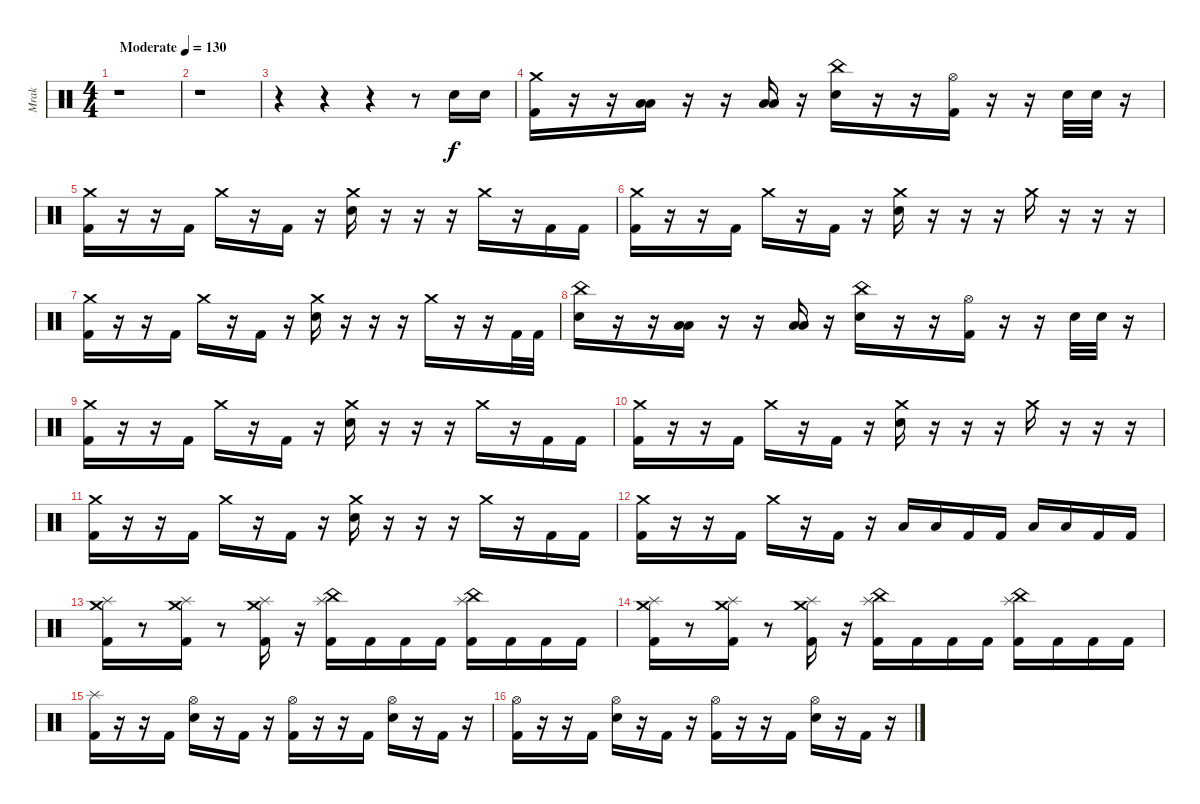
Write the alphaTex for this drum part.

\track ("Mrak" "Mrak") {instrument percussion}
\staff {score}
\articulation defaults
\ts (4 4)
\tempo (130 "Moderate")
\clef neutral
\ks c
r.1{dy f} |
r.1 |
r.4 r.4 r.4 r.8 "Electric Snare (hit)".16 "Electric Snare (hit)".16 |
("Crash medium (hit)" "Kick (hit) 2").16 r.16 r.16 ("Low Tom (hit)" "Low Floor Tom (hit)").16 r.16 r.16 ("Low Tom (hit)" "Low Floor Tom (hit)").16 r.16 ("China (hit)" "Electric Snare (hit)").16 r.16 r.16 ("Hi-Hat (open)" "Kick (hit) 2").16 r.16 r.16 "Electric Snare (hit)".32 "Electric Snare (hit)".32 r.16 |
("Crash medium (hit)" "Kick (hit) 2").16 r.16 r.16 "Kick (hit) 2".16 "Crash medium (hit)".16 r.16 "Kick (hit) 2".16 r.16 ("Crash medium (hit)" "Electric Snare (hit)").16 r.16 r.16 r.16 "Crash medium (hit)".16 r.16 "Kick (hit) 2".16 "Kick (hit) 2".16 |
("Crash medium (hit)" "Kick (hit) 2").16 r.16 r.16 "Kick (hit) 2".16 "Crash medium (hit)".16 r.16 "Kick (hit) 2".16 r.16 ("Crash medium (hit)" "Electric Snare (hit)").16 r.16 r.16 r.16 "Crash medium (hit)".16 r.16 r.16 r.16 |
("Crash medium (hit)" "Kick (hit) 2").16 r.16 r.16 "Kick (hit) 2".16 "Crash medium (hit)".16 r.16 "Kick (hit) 2".16 r.16 ("Crash medium (hit)" "Electric Snare (hit)").16 r.16 r.16 r.16 "Crash medium (hit)".16 r.16 r.16 "Kick (hit) 2".32 "Kick (hit) 2".32 |
("China (hit)" "Electric Snare (hit)").16 r.16 r.16 ("Low Tom (hit)" "Low Floor Tom (hit)").16 r.16 r.16 ("Low Tom (hit)" "Low Floor Tom (hit)").16 r.16 ("China (hit)" "Electric Snare (hit)").16 r.16 r.16 ("Hi-Hat (open)" "Kick (hit) 2").16 r.16 r.16 "Electric Snare (hit)".32 "Electric Snare (hit)".32 r.16 |
("Crash medium (hit)" "Kick (hit) 2").16 r.16 r.16 "Kick (hit) 2".16 "Crash medium (hit)".16 r.16 "Kick (hit) 2".16 r.16 ("Crash medium (hit)" "Electric Snare (hit)").16 r.16 r.16 r.16 "Crash medium (hit)".16 r.16 "Kick (hit) 2".16 "Kick (hit) 2".16 |
("Crash medium (hit)" "Kick (hit) 2").16 r.16 r.16 "Kick (hit) 2".16 "Crash medium (hit)".16 r.16 "Kick (hit) 2".16 r.16 ("Crash medium (hit)" "Electric Snare (hit)").16 r.16 r.16 r.16 "Crash medium (hit)".16 r.16 r.16 r.16 |
("Crash medium (hit)" "Kick (hit) 2").16 r.16 r.16 "Kick (hit) 2".16 "Crash medium (hit)".16 r.16 "Kick (hit) 2".16 r.16 ("Crash medium (hit)" "Electric Snare (hit)").16 r.16 r.16 r.16 "Crash medium (hit)".16 r.16 "Kick (hit) 2".16 "Kick (hit) 2".16 |
("Crash medium (hit)" "Kick (hit) 2").16 r.16 r.16 "Kick (hit) 2".16 "Crash medium (hit)".16 r.16 "Kick (hit) 2".16 r.16 "Low Tom (hit)".16 "Low Tom (hit)".16 "Kick (hit) 2".16 "Kick (hit) 2".16 "Low Floor Tom (hit)".16 "Low Floor Tom (hit)".16 "Kick (hit) 2".16 "Kick (hit) 2".16 |
("Crash medium (hit)" "Splash (hit)" "Kick (hit) 2").16 r.8 ("Crash medium (hit)" "Splash (hit)" "Kick (hit) 2").16 r.8 ("Crash medium (hit)" "Splash (hit)" "Kick (hit) 2").16 r.16 ("China (hit)" "Splash (hit)" "Kick (hit) 2").16 "Kick (hit) 2".16 "Kick (hit) 2".16 "Kick (hit) 2".16 ("China (hit)" "Splash (hit)" "Kick (hit) 2").16 "Kick (hit) 2".16 "Kick (hit) 2".16 "Kick (hit) 2".16 |
("Crash medium (hit)" "Splash (hit)" "Kick (hit) 2").16 r.8 ("Crash medium (hit)" "Splash (hit)" "Kick (hit) 2").16 r.8 ("Crash medium (hit)" "Splash (hit)" "Kick (hit) 2").16 r.16 ("China (hit)" "Splash (hit)" "Kick (hit) 2").16 "Kick (hit) 2".16 "Kick (hit) 2".16 "Kick (hit) 2".16 ("China (hit)" "Splash (hit)" "Kick (hit) 2").16 "Kick (hit) 2".16 "Kick (hit) 2".16 "Kick (hit) 2".16 |
("Splash (hit)" "Kick (hit) 2").16 r.16 r.16 "Kick (hit) 2".16 ("Hi-Hat (open)" "Electric Snare (hit)").16 r.16 "Kick (hit) 2".16 r.16 ("Hi-Hat (open)" "Kick (hit) 2").16 r.16 r.16 "Kick (hit) 2".16 ("Hi-Hat (open)" "Electric Snare (hit)").16 r.16 "Kick (hit) 2".16 r.16 |
("Hi-Hat (open)" "Kick (hit) 2").16 r.16 r.16 "Kick (hit) 2".16 ("Hi-Hat (open)" "Electric Snare (hit)").16 r.16 "Kick (hit) 2".16 r.16 ("Hi-Hat (open)" "Kick (hit) 2").16 r.16 r.16 "Kick (hit) 2".16 ("Hi-Hat (open)" "Electric Snare (hit)").16 r.16 "Kick (hit) 2".16 r.16
